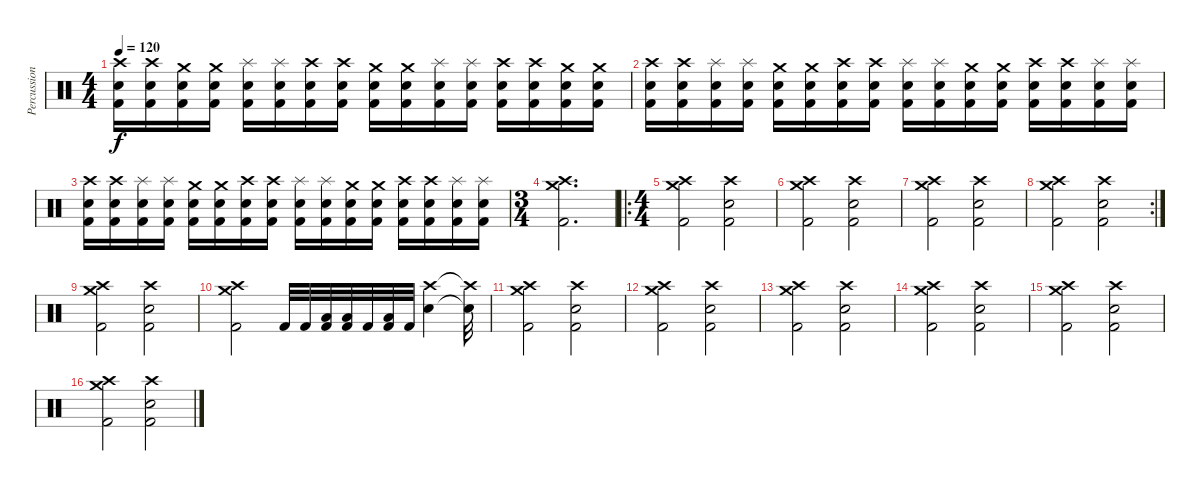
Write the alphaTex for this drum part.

\track ("Percussion" "Percussion") {instrument percussion}
\staff {score}
\articulation defaults
\ts (4 4)
\tempo 120
\clef neutral
\ks c
("Crash high (hit)" "Snare (hit) 2" "Kick (hit) 2").16{dy f} ("Crash high (hit)" "Snare (hit) 2" "Kick (hit) 2").16 ("Crash medium (hit)" "Snare (hit) 2" "Kick (hit) 2").16 ("Crash medium (hit)" "Snare (hit) 2" "Kick (hit) 2").16 ("Splash (hit)" "Snare (hit) 2" "Kick (hit) 2").16 ("Splash (hit)" "Snare (hit) 2" "Kick (hit) 2").16 ("Crash high (hit)" "Snare (hit) 2" "Kick (hit) 2").16 ("Crash high (hit)" "Snare (hit) 2" "Kick (hit) 2").16 ("Crash medium (hit)" "Snare (hit) 2" "Kick (hit) 2").16 ("Crash medium (hit)" "Snare (hit) 2" "Kick (hit) 2").16 ("Splash (hit)" "Snare (hit) 2" "Kick (hit) 2").16 ("Splash (hit)" "Snare (hit) 2" "Kick (hit) 2").16 ("Crash high (hit)" "Snare (hit) 2" "Kick (hit) 2").16 ("Crash high (hit)" "Snare (hit) 2" "Kick (hit) 2").16 ("Crash medium (hit)" "Snare (hit) 2" "Kick (hit) 2").16 ("Crash medium (hit)" "Snare (hit) 2" "Kick (hit) 2").16 |
("Crash high (hit)" "Snare (hit) 2" "Kick (hit) 2").16 ("Crash high (hit)" "Snare (hit) 2" "Kick (hit) 2").16 ("Splash (hit)" "Snare (hit) 2" "Kick (hit) 2").16 ("Splash (hit)" "Snare (hit) 2" "Kick (hit) 2").16 ("Crash medium (hit)" "Snare (hit) 2" "Kick (hit) 2").16 ("Crash medium (hit)" "Snare (hit) 2" "Kick (hit) 2").16 ("Crash high (hit)" "Snare (hit) 2" "Kick (hit) 2").16 ("Crash high (hit)" "Snare (hit) 2" "Kick (hit) 2").16 ("Splash (hit)" "Snare (hit) 2" "Kick (hit) 2").16 ("Splash (hit)" "Snare (hit) 2" "Kick (hit) 2").16 ("Crash medium (hit)" "Snare (hit) 2" "Kick (hit) 2").16 ("Crash medium (hit)" "Snare (hit) 2" "Kick (hit) 2").16 ("Crash high (hit)" "Snare (hit) 2" "Kick (hit) 2").16 ("Crash high (hit)" "Snare (hit) 2" "Kick (hit) 2").16 ("Splash (hit)" "Snare (hit) 2" "Kick (hit) 2").16 ("Splash (hit)" "Snare (hit) 2" "Kick (hit) 2").16 |
("Crash high (hit)" "Snare (hit) 2" "Kick (hit) 2").16 ("Crash high (hit)" "Snare (hit) 2" "Kick (hit) 2").16 ("Splash (hit)" "Snare (hit) 2" "Kick (hit) 2").16 ("Splash (hit)" "Snare (hit) 2" "Kick (hit) 2").16 ("Crash medium (hit)" "Snare (hit) 2" "Kick (hit) 2").16 ("Crash medium (hit)" "Snare (hit) 2" "Kick (hit) 2").16 ("Crash high (hit)" "Snare (hit) 2" "Kick (hit) 2").16 ("Crash high (hit)" "Snare (hit) 2" "Kick (hit) 2").16 ("Splash (hit)" "Snare (hit) 2" "Kick (hit) 2").16 ("Splash (hit)" "Snare (hit) 2" "Kick (hit) 2").16 ("Crash medium (hit)" "Snare (hit) 2" "Kick (hit) 2").16 ("Crash medium (hit)" "Snare (hit) 2" "Kick (hit) 2").16 ("Crash high (hit)" "Snare (hit) 2" "Kick (hit) 2").16 ("Crash high (hit)" "Snare (hit) 2" "Kick (hit) 2").16 ("Splash (hit)" "Snare (hit) 2" "Kick (hit) 2").16 ("Splash (hit)" "Snare (hit) 2" "Kick (hit) 2").16 |
\ts (3 4)
("Crash high (hit)" "Crash medium (hit)" "Kick (hit) 2").2{d} |
\ro
\ts (4 4)
("Crash medium (hit)" "Crash high (hit)" "Kick (hit) 2").2 ("Crash high (hit)" "Snare (hit) 2" "Kick (hit) 2").2 |
("Crash medium (hit)" "Crash high (hit)" "Kick (hit) 2").2 ("Crash high (hit)" "Snare (hit) 2" "Kick (hit) 2").2 |
("Crash medium (hit)" "Crash high (hit)" "Kick (hit) 2").2 ("Crash high (hit)" "Snare (hit) 2" "Kick (hit) 2").2 |
\rc 2
("Crash medium (hit)" "Crash high (hit)" "Kick (hit) 2").2 ("Crash high (hit)" "Snare (hit) 2" "Kick (hit) 2").2 |
("Crash medium (hit)" "Crash high (hit)" "Kick (hit) 2").2 ("Crash high (hit)" "Snare (hit) 2" "Kick (hit) 2").2 |
("Crash medium (hit)" "Crash high (hit)" "Kick (hit) 2").2 "Kick (hit) 2".32 "Kick (hit) 2".32 ("Low Tom (hit)" "Kick (hit) 2").32 ("Low Tom (hit)" "Kick (hit) 2").32 "Kick (hit) 2".32 ("Low Floor Tom (hit)" "Kick (hit) 2").32 "Kick (hit) 2".32 ("Crash high (hit)" "Snare (hit) 2").4 ("Crash high (hit)"{t} "Snare (hit) 2"{t}).32 |
("Crash medium (hit)" "Crash high (hit)" "Kick (hit) 2").2 ("Crash high (hit)" "Snare (hit) 2" "Kick (hit) 2").2 |
("Crash medium (hit)" "Crash high (hit)" "Kick (hit) 2").2 ("Crash high (hit)" "Snare (hit) 2" "Kick (hit) 2").2 |
("Crash medium (hit)" "Crash high (hit)" "Kick (hit) 2").2 ("Crash high (hit)" "Snare (hit) 2" "Kick (hit) 2").2 |
("Crash medium (hit)" "Crash high (hit)" "Kick (hit) 2").2 ("Crash high (hit)" "Snare (hit) 2" "Kick (hit) 2").2 |
("Crash medium (hit)" "Crash high (hit)" "Kick (hit) 2").2 ("Crash high (hit)" "Snare (hit) 2" "Kick (hit) 2").2 |
("Crash medium (hit)" "Crash high (hit)" "Kick (hit) 2").2 ("Crash high (hit)" "Snare (hit) 2" "Kick (hit) 2").2
